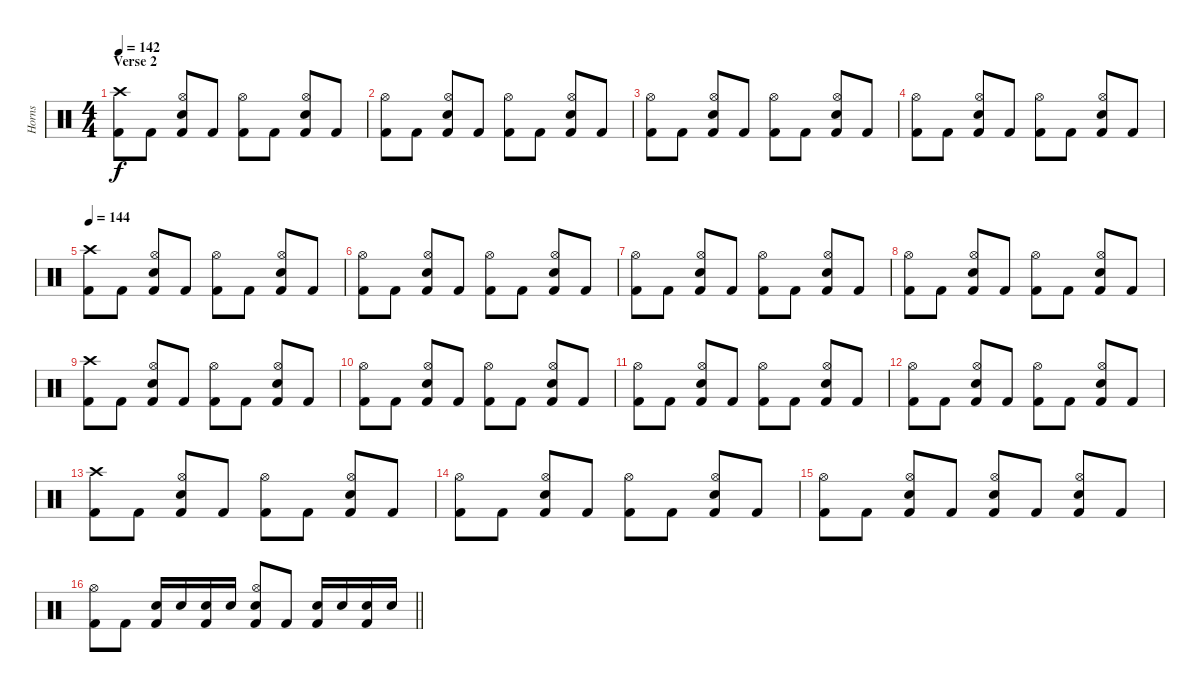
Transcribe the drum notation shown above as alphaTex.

\track ("Horns" "Horns") {instrument percussion}
\staff {score}
\articulation defaults
\ts (4 4)
\section ("" "Verse 2")
\tempo 142
\clef neutral
\ks c
("Crash high (hit)" "Kick (hit) 2").8{dy f} "Kick (hit) 2".8 ("Hi-Hat (open)" "Snare (hit) 2" "Kick (hit) 2").8 "Kick (hit) 2".8 ("Hi-Hat (open)" "Kick (hit) 2").8 "Kick (hit) 2".8 ("Hi-Hat (open)" "Snare (hit) 2" "Kick (hit) 2").8 "Kick (hit) 2".8 |
("Hi-Hat (open)" "Kick (hit) 2").8 "Kick (hit) 2".8 ("Hi-Hat (open)" "Snare (hit) 2" "Kick (hit) 2").8 "Kick (hit) 2".8 ("Hi-Hat (open)" "Kick (hit) 2").8 "Kick (hit) 2".8 ("Hi-Hat (open)" "Snare (hit) 2" "Kick (hit) 2").8 "Kick (hit) 2".8 |
("Hi-Hat (open)" "Kick (hit) 2").8 "Kick (hit) 2".8 ("Hi-Hat (open)" "Snare (hit) 2" "Kick (hit) 2").8 "Kick (hit) 2".8 ("Hi-Hat (open)" "Kick (hit) 2").8 "Kick (hit) 2".8 ("Hi-Hat (open)" "Snare (hit) 2" "Kick (hit) 2").8 "Kick (hit) 2".8 |
("Hi-Hat (open)" "Kick (hit) 2").8 "Kick (hit) 2".8 ("Hi-Hat (open)" "Snare (hit) 2" "Kick (hit) 2").8 "Kick (hit) 2".8 ("Hi-Hat (open)" "Kick (hit) 2").8 "Kick (hit) 2".8 ("Hi-Hat (open)" "Snare (hit) 2" "Kick (hit) 2").8 "Kick (hit) 2".8 |
\tempo 144
("Crash high (hit)" "Kick (hit) 2").8 "Kick (hit) 2".8 ("Hi-Hat (open)" "Snare (hit) 2" "Kick (hit) 2").8 "Kick (hit) 2".8 ("Hi-Hat (open)" "Kick (hit) 2").8 "Kick (hit) 2".8 ("Hi-Hat (open)" "Snare (hit) 2" "Kick (hit) 2").8 "Kick (hit) 2".8 |
("Hi-Hat (open)" "Kick (hit) 2").8 "Kick (hit) 2".8 ("Hi-Hat (open)" "Snare (hit) 2" "Kick (hit) 2").8 "Kick (hit) 2".8 ("Hi-Hat (open)" "Kick (hit) 2").8 "Kick (hit) 2".8 ("Hi-Hat (open)" "Snare (hit) 2" "Kick (hit) 2").8 "Kick (hit) 2".8 |
("Hi-Hat (open)" "Kick (hit) 2").8 "Kick (hit) 2".8 ("Hi-Hat (open)" "Snare (hit) 2" "Kick (hit) 2").8 "Kick (hit) 2".8 ("Hi-Hat (open)" "Kick (hit) 2").8 "Kick (hit) 2".8 ("Hi-Hat (open)" "Snare (hit) 2" "Kick (hit) 2").8 "Kick (hit) 2".8 |
("Hi-Hat (open)" "Kick (hit) 2").8 "Kick (hit) 2".8 ("Hi-Hat (open)" "Snare (hit) 2" "Kick (hit) 2").8 "Kick (hit) 2".8 ("Hi-Hat (open)" "Kick (hit) 2").8 "Kick (hit) 2".8 ("Hi-Hat (open)" "Snare (hit) 2" "Kick (hit) 2").8 "Kick (hit) 2".8 |
("Crash high (hit)" "Kick (hit) 2").8 "Kick (hit) 2".8 ("Hi-Hat (open)" "Snare (hit) 2" "Kick (hit) 2").8 "Kick (hit) 2".8 ("Hi-Hat (open)" "Kick (hit) 2").8 "Kick (hit) 2".8 ("Hi-Hat (open)" "Snare (hit) 2" "Kick (hit) 2").8 "Kick (hit) 2".8 |
("Hi-Hat (open)" "Kick (hit) 2").8 "Kick (hit) 2".8 ("Hi-Hat (open)" "Snare (hit) 2" "Kick (hit) 2").8 "Kick (hit) 2".8 ("Hi-Hat (open)" "Kick (hit) 2").8 "Kick (hit) 2".8 ("Hi-Hat (open)" "Snare (hit) 2" "Kick (hit) 2").8 "Kick (hit) 2".8 |
("Hi-Hat (open)" "Kick (hit) 2").8 "Kick (hit) 2".8 ("Hi-Hat (open)" "Snare (hit) 2" "Kick (hit) 2").8 "Kick (hit) 2".8 ("Hi-Hat (open)" "Kick (hit) 2").8 "Kick (hit) 2".8 ("Hi-Hat (open)" "Snare (hit) 2" "Kick (hit) 2").8 "Kick (hit) 2".8 |
("Hi-Hat (open)" "Kick (hit) 2").8 "Kick (hit) 2".8 ("Hi-Hat (open)" "Snare (hit) 2" "Kick (hit) 2").8 "Kick (hit) 2".8 ("Hi-Hat (open)" "Kick (hit) 2").8 "Kick (hit) 2".8 ("Hi-Hat (open)" "Snare (hit) 2" "Kick (hit) 2").8 "Kick (hit) 2".8 |
("Crash high (hit)" "Kick (hit) 2").8 "Kick (hit) 2".8 ("Hi-Hat (open)" "Snare (hit) 2" "Kick (hit) 2").8 "Kick (hit) 2".8 ("Hi-Hat (open)" "Kick (hit) 2").8 "Kick (hit) 2".8 ("Hi-Hat (open)" "Snare (hit) 2" "Kick (hit) 2").8 "Kick (hit) 2".8 |
("Hi-Hat (open)" "Kick (hit) 2").8 "Kick (hit) 2".8 ("Hi-Hat (open)" "Snare (hit) 2" "Kick (hit) 2").8 "Kick (hit) 2".8 ("Hi-Hat (open)" "Kick (hit) 2").8 "Kick (hit) 2".8 ("Hi-Hat (open)" "Snare (hit) 2" "Kick (hit) 2").8 "Kick (hit) 2".8 |
("Hi-Hat (open)" "Kick (hit) 2").8 "Kick (hit) 2".8 ("Hi-Hat (open)" "Snare (hit) 2" "Kick (hit) 2").8 "Kick (hit) 2".8 ("Hi-Hat (open)" "Snare (hit) 2" "Kick (hit) 2").8 "Kick (hit) 2".8 ("Hi-Hat (open)" "Snare (hit) 2" "Kick (hit) 2").8 "Kick (hit) 2".8 |
\barLineRight lightlight
("Hi-Hat (open)" "Kick (hit) 2").8 "Kick (hit) 2".8 ("Snare (hit) 2" "Kick (hit) 2").16 "Snare (hit) 2".16 ("Snare (hit) 2" "Kick (hit) 2").16 "Snare (hit) 2".16 ("Hi-Hat (open)" "Snare (hit) 2" "Kick (hit) 2").8 "Kick (hit) 2".8 ("Snare (hit) 2" "Kick (hit) 2").16 "Snare (hit) 2".16 ("Snare (hit) 2" "Kick (hit) 2").16 "Snare (hit) 2".16
